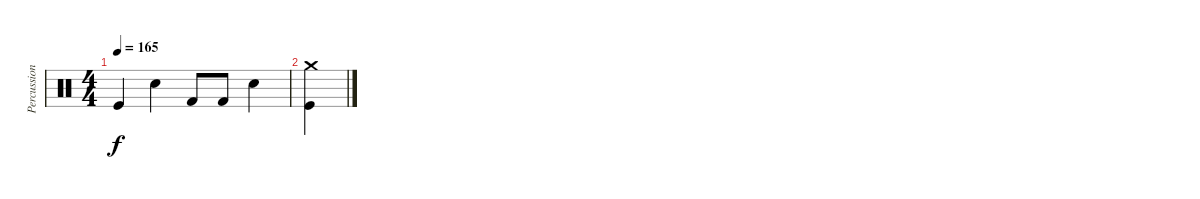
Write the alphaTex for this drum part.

\track ("Percussions" "Percussion") {instrument percussion}
\staff {score}
\articulation defaults
\ts (4 4)
\tempo 165
\clef neutral
\ks c "Kick (hit)".4{dy f} "Snare (hit) 2".4 "Kick (hit) 2".8 "Kick (hit) 2".8 "Snare (hit) 2".4
|
("Crash medium (hit)" "Kick (hit)").4
